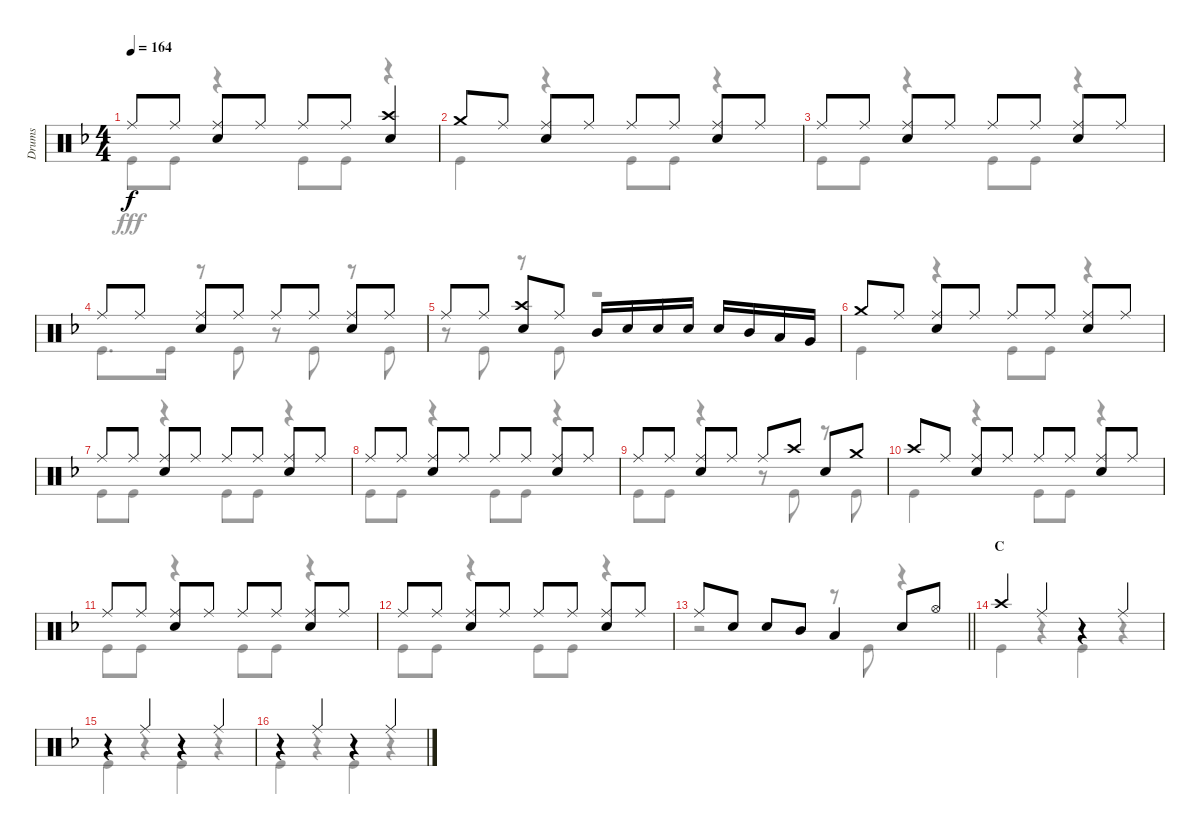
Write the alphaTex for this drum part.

\track ("Drums" "Drums") {instrument percussion}
\staff {score}
\articulation defaults
\voice
\ts (4 4)
\tempo 164
\clef neutral
\ks f "Ride (middle)".8{dy f} "Ride (middle)".8
("Ride (middle)" "Snare (hit) 2").8 "Ride (middle)".8 "Ride (middle)".8 "Ride (middle)".8 ("Crash high (hit)" "Snare (hit) 2").4 |
"Crash medium (hit)".8 "Ride (middle)".8 ("Ride (middle)" "Snare (hit) 2").8 "Ride (middle)".8 "Ride (middle)".8 "Ride (middle)".8 ("Ride (middle)" "Snare (hit) 2").8 "Ride (middle)".8 |
"Ride (middle)".8 "Ride (middle)".8 ("Ride (middle)" "Snare (hit) 2").8 "Ride (middle)".8 "Ride (middle)".8 "Ride (middle)".8 ("Ride (middle)" "Snare (hit) 2").8 "Ride (middle)".8 |
"Ride (middle)".8 "Ride (middle)".8 ("Ride (middle)" "Snare (hit) 2").8 "Ride (middle)".8 "Ride (middle)".8 "Ride (middle)".8 ("Ride (middle)" "Snare (hit) 2").8 "Ride (middle)".8 |
"Ride (middle)".8 "Ride (middle)".8 ("Crash high (hit)" "Snare (hit) 2").8 "Ride (middle)".8 "Mid Tom (hit)".16 "Snare (hit) 2".16 "Snare (hit) 2".16 "Snare (hit) 2".16 "Snare (hit) 2".16 "Mid Tom (hit)".16 "Low Tom (hit)".16 "Very Low Tom (hit)".16 |
"Crash medium (hit)".8 "Ride (middle)".8 ("Ride (middle)" "Snare (hit) 2").8 "Ride (middle)".8 "Ride (middle)".8 "Ride (middle)".8 ("Ride (middle)" "Snare (hit) 2").8 "Ride (middle)".8 |
"Ride (middle)".8 "Ride (middle)".8 ("Ride (middle)" "Snare (hit) 2").8 "Ride (middle)".8 "Ride (middle)".8 "Ride (middle)".8 ("Ride (middle)" "Snare (hit) 2").8 "Ride (middle)".8 |
"Ride (middle)".8 "Ride (middle)".8 ("Ride (middle)" "Snare (hit) 2").8 "Ride (middle)".8 "Ride (middle)".8 "Ride (middle)".8 ("Ride (middle)" "Snare (hit) 2").8 "Ride (middle)".8 |
"Ride (middle)".8 "Ride (middle)".8 ("Ride (middle)" "Snare (hit) 2").8 "Ride (middle)".8 "Ride (middle)".8 "Crash high (hit)".8 "Snare (hit) 2".8 "Crash medium (hit)".8 |
"Crash high (hit)".8 "Ride (middle)".8 ("Ride (middle)" "Snare (hit) 2").8 "Ride (middle)".8 "Ride (middle)".8 "Ride (middle)".8 ("Ride (middle)" "Snare (hit) 2").8 "Ride (middle)".8 |
"Ride (middle)".8 "Ride (middle)".8 ("Ride (middle)" "Snare (hit) 2").8 "Ride (middle)".8 "Ride (middle)".8 "Ride (middle)".8 ("Ride (middle)" "Snare (hit) 2").8 "Ride (middle)".8 |
"Ride (middle)".8 "Ride (middle)".8 ("Ride (middle)" "Snare (hit) 2").8 "Ride (middle)".8 "Ride (middle)".8 "Ride (middle)".8 ("Ride (middle)" "Snare (hit) 2").8 "Ride (middle)".8 |
\barLineRight lightlight "Ride (middle)".8 "Snare (hit) 2".8 "Snare (hit) 2".8 "Mid Tom (hit)".8 "Low Tom (hit)".4 "Snare (hit) 2".8 "Hi-Hat (open)".8
|
\section ("" "C")
"Crash high (hit)".4 "Ride (middle)".4 r.4 "Ride (middle)".4 |
r.4 "Ride (middle)".4 r.4 "Ride (middle)".4 |
r.4 "Ride (middle)".4 r.4 "Ride (middle)".4
\voice
\clef neutral
\ottava regular
\simile none
\ks f "Kick (hit)".8{dy fff} "Kick (hit)".8
r.4 "Kick (hit)".8 "Kick (hit)".8 r.4 |
"Kick (hit)".4 r.4 "Kick (hit)".8 "Kick (hit)".8 r.4 |
"Kick (hit)".8 "Kick (hit)".8 r.4 "Kick (hit)".8 "Kick (hit)".8 r.4 |
"Kick (hit)".8{d} "Kick (hit)".16 r.8 "Kick (hit)".8 r.8 "Kick (hit)".8 r.8 "Kick (hit)".8 |
r.8 "Kick (hit)".8 r.8 "Kick (hit)".8 r.2 |
"Kick (hit)".4 r.4 "Kick (hit)".8 "Kick (hit)".8 r.4 |
"Kick (hit)".8 "Kick (hit)".8 r.4 "Kick (hit)".8 "Kick (hit)".8 r.4 |
"Kick (hit)".8 "Kick (hit)".8 r.4 "Kick (hit)".8 "Kick (hit)".8 r.4 |
"Kick (hit)".8 "Kick (hit)".8 r.4 r.8 "Kick (hit)".8 r.8 "Kick (hit)".8 |
"Kick (hit)".4 r.4 "Kick (hit)".8 "Kick (hit)".8 r.4 |
"Kick (hit)".8 "Kick (hit)".8 r.4 "Kick (hit)".8 "Kick (hit)".8 r.4 |
"Kick (hit)".8 "Kick (hit)".8 r.4 "Kick (hit)".8 "Kick (hit)".8 r.4 |
\barLineRight lightlight
r.2 r.8 "Kick (hit)".8 r.4 |
"Kick (hit)".4 r.4 "Kick (hit)".4 r.4 |
"Kick (hit)".4 r.4 "Kick (hit)".4 r.4 |
"Kick (hit)".4 r.4 "Kick (hit)".4 r.4
